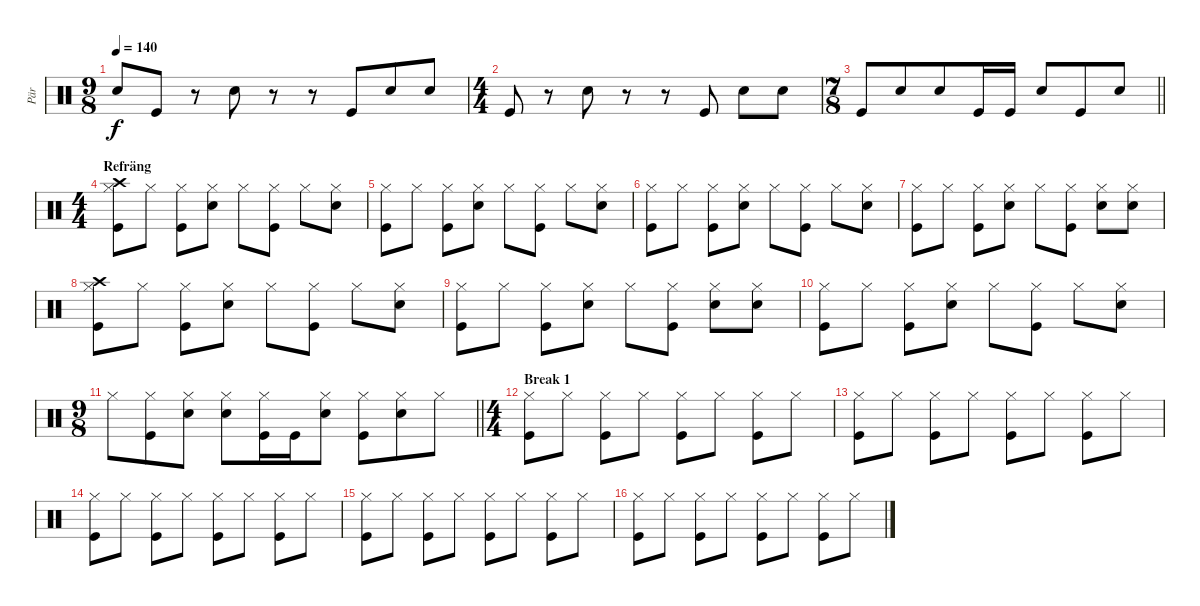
\track ("Pär" "Pär") {instrument percussion}
\staff {score}
\articulation defaults
\ts (9 8)
\tempo 140
\clef neutral
\ks c "Snare (hit) 2".8{dy f} "Kick (hit)".8
r.8 "Snare (hit) 2".8 r.8 r.8 "Kick (hit)".8 "Snare (hit) 2".8 "Snare (hit) 2".8 |
\ts (4 4)
"Kick (hit)".8 r.8 "Snare (hit) 2".8 r.8 r.8 "Kick (hit)".8 "Snare (hit) 2".8 "Snare (hit) 2".8 |
\ts (7 8)
\barLineRight lightlight "Kick (hit)".8 "Snare (hit) 2".8 "Snare (hit) 2".8 "Kick (hit)".16 "Kick (hit)".16 "Snare (hit) 2".8 "Kick (hit)".8 "Snare (hit) 2".8
|
\ts (4 4)
\section ("" "Refräng")
("Hi-Hat (closed)" "Crash high (hit)" "Kick (hit)").8 "Hi-Hat (closed)".8 ("Hi-Hat (closed)" "Kick (hit)").8 ("Hi-Hat (closed)" "Snare (hit) 2").8 "Hi-Hat (closed)".8 ("Hi-Hat (closed)" "Kick (hit)").8 "Hi-Hat (closed)".8 ("Hi-Hat (closed)" "Snare (hit) 2").8 |
("Hi-Hat (closed)" "Kick (hit)").8 "Hi-Hat (closed)".8 ("Hi-Hat (closed)" "Kick (hit)").8 ("Hi-Hat (closed)" "Snare (hit) 2").8 "Hi-Hat (closed)".8 ("Hi-Hat (closed)" "Kick (hit)").8 "Hi-Hat (closed)".8 ("Hi-Hat (closed)" "Snare (hit) 2").8 |
("Hi-Hat (closed)" "Kick (hit)").8 "Hi-Hat (closed)".8 ("Hi-Hat (closed)" "Kick (hit)").8 ("Hi-Hat (closed)" "Snare (hit) 2").8 "Hi-Hat (closed)".8 ("Hi-Hat (closed)" "Kick (hit)").8 "Hi-Hat (closed)".8 ("Hi-Hat (closed)" "Snare (hit) 2").8 |
("Hi-Hat (closed)" "Kick (hit)").8 "Hi-Hat (closed)".8 ("Hi-Hat (closed)" "Kick (hit)").8 ("Hi-Hat (closed)" "Snare (hit) 2").8 "Hi-Hat (closed)".8 ("Hi-Hat (closed)" "Kick (hit)").8 ("Hi-Hat (closed)" "Snare (hit) 2").8 ("Hi-Hat (closed)" "Snare (hit) 2").8 |
("Hi-Hat (closed)" "Crash high (hit)" "Kick (hit)").8 "Hi-Hat (closed)".8 ("Hi-Hat (closed)" "Kick (hit)").8 ("Hi-Hat (closed)" "Snare (hit) 2").8 "Hi-Hat (closed)".8 ("Hi-Hat (closed)" "Kick (hit)").8 "Hi-Hat (closed)".8 ("Hi-Hat (closed)" "Snare (hit) 2").8 |
("Hi-Hat (closed)" "Kick (hit)").8 "Hi-Hat (closed)".8 ("Hi-Hat (closed)" "Kick (hit)").8 ("Hi-Hat (closed)" "Snare (hit) 2").8 "Hi-Hat (closed)".8 ("Hi-Hat (closed)" "Kick (hit)").8 ("Hi-Hat (closed)" "Snare (hit) 2").8 ("Hi-Hat (closed)" "Snare (hit) 2").8 |
("Hi-Hat (closed)" "Kick (hit)").8 "Hi-Hat (closed)".8 ("Hi-Hat (closed)" "Kick (hit)").8 ("Hi-Hat (closed)" "Snare (hit) 2").8 "Hi-Hat (closed)".8 ("Hi-Hat (closed)" "Kick (hit)").8 "Hi-Hat (closed)".8 ("Hi-Hat (closed)" "Snare (hit) 2").8 |
\ts (9 8)
\barLineRight lightlight "Hi-Hat (closed)".8
("Hi-Hat (closed)" "Kick (hit)").8 ("Hi-Hat (closed)" "Snare (hit) 2").8 ("Hi-Hat (closed)" "Snare (hit) 2").8 ("Hi-Hat (closed)" "Kick (hit)").16 "Kick (hit)".16 ("Hi-Hat (closed)" "Snare (hit) 2").8 ("Hi-Hat (closed)" "Kick (hit)").8 ("Hi-Hat (closed)" "Snare (hit) 2").8 "Hi-Hat (closed)".8 |
\ts (4 4)
\section ("" "Break 1")
("Hi-Hat (closed)" "Kick (hit)").8 "Hi-Hat (closed)".8 ("Hi-Hat (closed)" "Kick (hit)").8 "Hi-Hat (closed)".8 ("Hi-Hat (closed)" "Kick (hit)").8 "Hi-Hat (closed)".8 ("Hi-Hat (closed)" "Kick (hit)").8 "Hi-Hat (closed)".8 |
("Hi-Hat (closed)" "Kick (hit)").8 "Hi-Hat (closed)".8 ("Hi-Hat (closed)" "Kick (hit)").8 "Hi-Hat (closed)".8 ("Hi-Hat (closed)" "Kick (hit)").8 "Hi-Hat (closed)".8 ("Hi-Hat (closed)" "Kick (hit)").8 "Hi-Hat (closed)".8 |
("Hi-Hat (closed)" "Kick (hit)").8 "Hi-Hat (closed)".8 ("Hi-Hat (closed)" "Kick (hit)").8 "Hi-Hat (closed)".8 ("Hi-Hat (closed)" "Kick (hit)").8 "Hi-Hat (closed)".8 ("Hi-Hat (closed)" "Kick (hit)").8 "Hi-Hat (closed)".8 |
("Hi-Hat (closed)" "Kick (hit)").8 "Hi-Hat (closed)".8 ("Hi-Hat (closed)" "Kick (hit)").8 "Hi-Hat (closed)".8 ("Hi-Hat (closed)" "Kick (hit)").8 "Hi-Hat (closed)".8 ("Hi-Hat (closed)" "Kick (hit)").8 "Hi-Hat (closed)".8 |
("Hi-Hat (closed)" "Kick (hit)").8 "Hi-Hat (closed)".8 ("Hi-Hat (closed)" "Kick (hit)").8 "Hi-Hat (closed)".8 ("Hi-Hat (closed)" "Kick (hit)").8 "Hi-Hat (closed)".8 ("Hi-Hat (closed)" "Kick (hit)").8 "Hi-Hat (closed)".8
